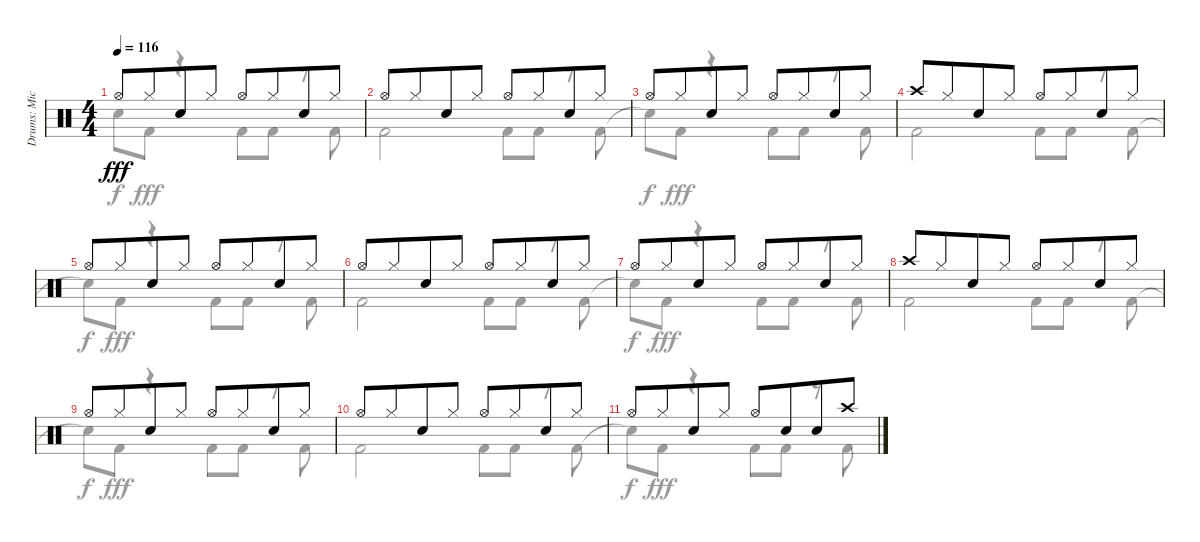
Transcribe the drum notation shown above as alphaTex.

\track ("Drums: Mick" "Drums: Mic") {instrument percussion}
\staff {score}
\articulation defaults
\voice
\ts (4 4)
\tempo 116
\clef neutral
\ks c "Hi-Hat (open)".8{dy fff} "Hi-Hat (closed)".8{beam merge} "Snare (hit) 2".8 "Hi-Hat (closed)".8 "Hi-Hat (open)".8 "Hi-Hat (closed)".8{beam merge} "Snare (hit) 2".8 "Hi-Hat (closed)".8
|
"Hi-Hat (open)".8 "Hi-Hat (closed)".8{beam merge} "Snare (hit) 2".8 "Hi-Hat (closed)".8 "Hi-Hat (open)".8 "Hi-Hat (closed)".8{beam merge} "Snare (hit) 2".8 "Hi-Hat (closed)".8 |
"Hi-Hat (open)".8 "Hi-Hat (closed)".8{beam merge} "Snare (hit) 2".8 "Hi-Hat (closed)".8 "Hi-Hat (open)".8 "Hi-Hat (closed)".8{beam merge} "Snare (hit) 2".8 "Hi-Hat (closed)".8 |
"Crash high (hit)".8 "Hi-Hat (closed)".8{beam merge} "Snare (hit) 2".8 "Hi-Hat (closed)".8 "Hi-Hat (open)".8 "Hi-Hat (closed)".8{beam merge} "Snare (hit) 2".8 "Hi-Hat (closed)".8 |
"Hi-Hat (open)".8 "Hi-Hat (closed)".8{beam merge} "Snare (hit) 2".8 "Hi-Hat (closed)".8 "Hi-Hat (open)".8 "Hi-Hat (closed)".8{beam merge} "Snare (hit) 2".8 "Hi-Hat (closed)".8 |
"Hi-Hat (open)".8 "Hi-Hat (closed)".8{beam merge} "Snare (hit) 2".8 "Hi-Hat (closed)".8 "Hi-Hat (open)".8 "Hi-Hat (closed)".8{beam merge} "Snare (hit) 2".8 "Hi-Hat (closed)".8 |
"Hi-Hat (open)".8 "Hi-Hat (closed)".8{beam merge} "Snare (hit) 2".8 "Hi-Hat (closed)".8 "Hi-Hat (open)".8 "Hi-Hat (closed)".8{beam merge} "Snare (hit) 2".8 "Hi-Hat (closed)".8 |
"Crash high (hit)".8 "Hi-Hat (closed)".8{beam merge} "Snare (hit) 2".8 "Hi-Hat (closed)".8 "Hi-Hat (open)".8 "Hi-Hat (closed)".8{beam merge} "Snare (hit) 2".8 "Hi-Hat (closed)".8 |
"Hi-Hat (open)".8 "Hi-Hat (closed)".8{beam merge} "Snare (hit) 2".8 "Hi-Hat (closed)".8 "Hi-Hat (open)".8 "Hi-Hat (closed)".8{beam merge} "Snare (hit) 2".8 "Hi-Hat (closed)".8 |
"Hi-Hat (open)".8 "Hi-Hat (closed)".8{beam merge} "Snare (hit) 2".8 "Hi-Hat (closed)".8 "Hi-Hat (open)".8 "Hi-Hat (closed)".8{beam merge} "Snare (hit) 2".8 "Hi-Hat (closed)".8 |
"Hi-Hat (open)".8 "Hi-Hat (closed)".8{beam merge} "Snare (hit) 2".8 "Hi-Hat (closed)".8 "Hi-Hat (open)".8 "Snare (hit) 2".8{beam merge} "Snare (hit) 2".8 "Crash high (hit)".8 |
\voice
\clef neutral
\ottava regular
\simile none
\ks c "Snare (hit)"{t}.8{dy f} "Kick (hit) 2".8{dy fff}
r.4 "Kick (hit) 2".8 "Kick (hit) 2".8 r.8 "Kick (hit) 2".8 |
"Kick (hit) 2".2 "Kick (hit) 2".8 "Kick (hit) 2".8 r.8 "Kick (hit) 2".8 |
"Snare (hit)"{t}.8{dy f} "Kick (hit) 2".8{dy fff} r.4 "Kick (hit) 2".8 "Kick (hit) 2".8 r.8 "Kick (hit) 2".8 |
"Kick (hit) 2".2 "Kick (hit) 2".8 "Kick (hit) 2".8 r.8 "Kick (hit) 2".8 |
"Snare (hit)"{t}.8{dy f} "Kick (hit) 2".8{dy fff} r.4 "Kick (hit) 2".8 "Kick (hit) 2".8 r.8 "Kick (hit) 2".8 |
"Kick (hit) 2".2 "Kick (hit) 2".8 "Kick (hit) 2".8 r.8 "Kick (hit) 2".8 |
"Snare (hit)"{t}.8{dy f} "Kick (hit) 2".8{dy fff} r.4 "Kick (hit) 2".8 "Kick (hit) 2".8 r.8 "Kick (hit) 2".8 |
"Kick (hit) 2".2 "Kick (hit) 2".8 "Kick (hit) 2".8 r.8 "Kick (hit) 2".8 |
"Snare (hit)"{t}.8{dy f} "Kick (hit) 2".8{dy fff} r.4 "Kick (hit) 2".8 "Kick (hit) 2".8 r.8 "Kick (hit) 2".8 |
"Kick (hit) 2".2 "Kick (hit) 2".8 "Kick (hit) 2".8 r.8 "Kick (hit) 2".8 |
"Snare (hit)"{t}.8{dy f} "Kick (hit) 2".8{dy fff} r.4 "Kick (hit) 2".8 "Kick (hit) 2".8 r.8 "Kick (hit) 2".8 |
